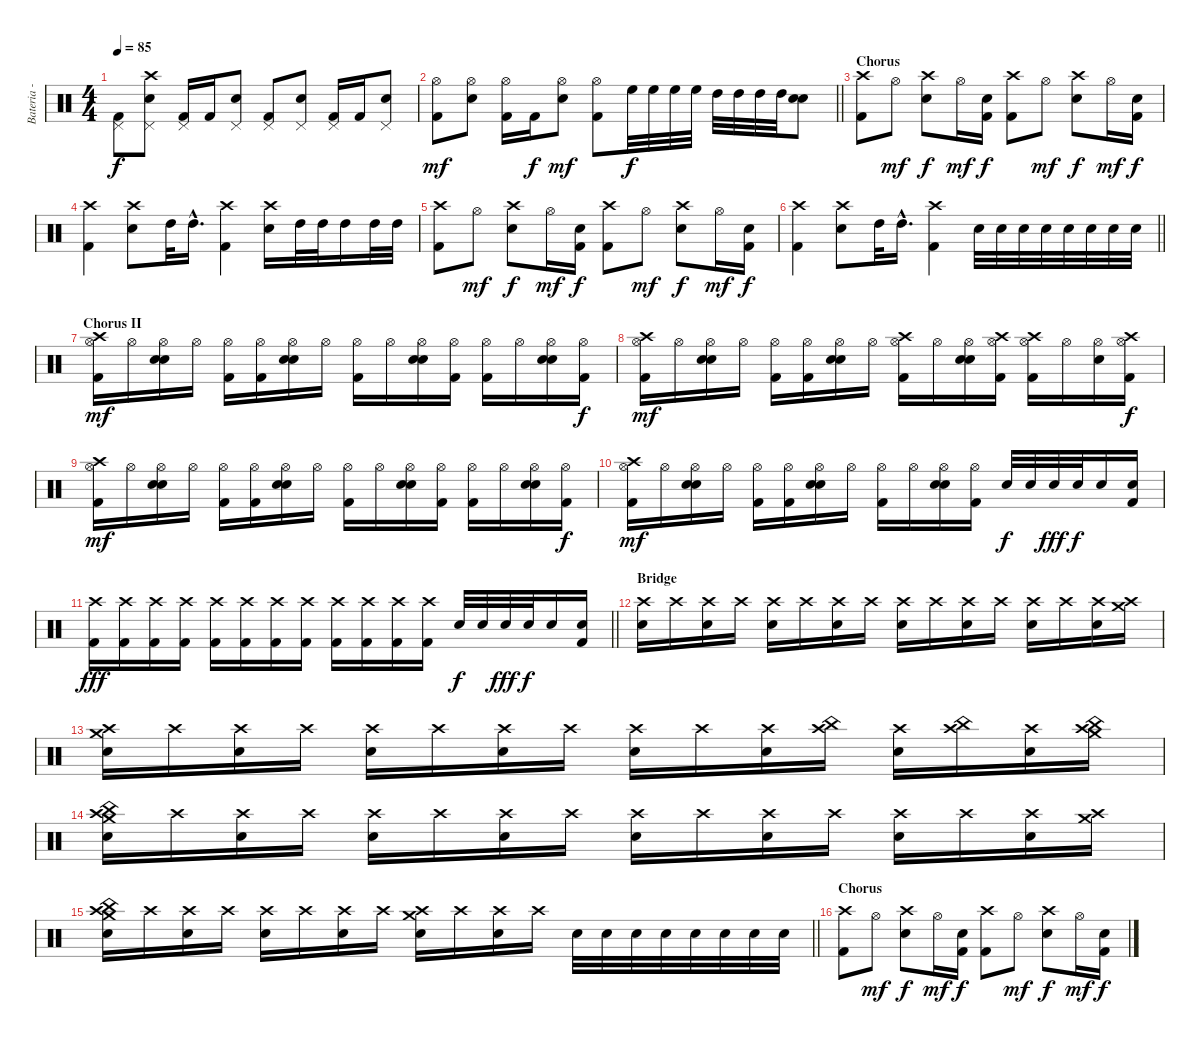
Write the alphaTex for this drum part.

\track ("Bateria - Larzon" "Bateria - ") {instrument percussion}
\staff {score}
\articulation defaults
\ts (4 4)
\tempo 85
\clef neutral
\ks c
("Kick (hit) 2" "Pedal Hi-Hat (hit)").8{dy f} ("Snare (hit) 2" "Pedal Hi-Hat (hit)" "Crash high (hit)").8 ("Kick (hit) 2" "Pedal Hi-Hat (hit)").16 "Kick (hit) 2".16 ("Snare (hit) 2" "Pedal Hi-Hat (hit)").8 ("Kick (hit) 2" "Pedal Hi-Hat (hit)").8 ("Snare (hit) 2" "Pedal Hi-Hat (hit)").8 ("Kick (hit) 2" "Pedal Hi-Hat (hit)").16 "Kick (hit) 2".16 ("Snare (hit) 2" "Pedal Hi-Hat (hit)").8 |
\barLineRight lightlight
("Kick (hit) 2" "Hi-Hat (open)").8{dy mf} ("Snare (hit) 2" "Hi-Hat (open)").8 ("Kick (hit) 2" "Hi-Hat (open)").16 "Kick (hit) 2".16{dy f} ("Snare (hit) 2" "Hi-Hat (open)").8{dy mf} ("Kick (hit) 2" "Hi-Hat (open)").8 "High Floor Tom (hit)".32{dy f} "High Floor Tom (hit)".32 "High Floor Tom (hit)".32 "High Floor Tom (hit)".32 "High Tom (hit)".32 "High Tom (hit)".32 "High Tom (hit)".32 "High Tom (hit)".32 ("Snare (hit) 2" "Snare (hit) 2").8 |
\section ("" "Chorus")
("Crash high (hit)" "Kick (hit) 2").8 "Hi-Hat (open)".8{dy mf} ("Crash high (hit)" "Snare (hit) 2").8{dy f} "Hi-Hat (open)".16{dy mf} ("Snare (hit) 2" "Kick (hit) 2").16{dy f} ("Crash high (hit)" "Kick (hit) 2").8 "Hi-Hat (open)".8{dy mf} ("Crash high (hit)" "Snare (hit) 2").8{dy f} "Hi-Hat (open)".16{dy mf} ("Snare (hit) 2" "Kick (hit) 2").16{dy f} |
("Crash high (hit)" "Kick (hit) 2").4 ("Crash high (hit)" "Snare (hit) 2").8 "High Tom (hit)".32 "High Tom (hit)"{hac}.16{d} ("Crash high (hit)" "Kick (hit) 2").4 ("Crash high (hit)" "Snare (hit) 2").16 "High Tom (hit)".32 "High Tom (hit)".32 "High Tom (hit)".16 "High Tom (hit)".32 "High Tom (hit)".32 |
("Crash high (hit)" "Kick (hit) 2").8 "Hi-Hat (open)".8{dy mf} ("Crash high (hit)" "Snare (hit) 2").8{dy f} "Hi-Hat (open)".16{dy mf} ("Snare (hit) 2" "Kick (hit) 2").16{dy f} ("Crash high (hit)" "Kick (hit) 2").8 "Hi-Hat (open)".8{dy mf} ("Crash high (hit)" "Snare (hit) 2").8{dy f} "Hi-Hat (open)".16{dy mf} ("Snare (hit) 2" "Kick (hit) 2").16{dy f} |
\barLineRight lightlight
("Crash high (hit)" "Kick (hit) 2").4 ("Crash high (hit)" "Snare (hit) 2").8 "High Tom (hit)".32 "High Tom (hit)"{hac}.16{d} ("Crash high (hit)" "Kick (hit) 2").4 "Snare (hit) 2".32 "Snare (hit) 2".32 "Snare (hit) 2".32 "Snare (hit) 2".32 "Snare (hit) 2".32 "Snare (hit) 2".32 "Snare (hit) 2".32 "Snare (hit) 2".32 |
\section ("" "Chorus II")
("Kick (hit) 2" "Crash high (hit)" "Hi-Hat (open)").16{dy mf} "Hi-Hat (open)".16 ("Snare (hit) 2" "Snare (hit) 2" "Hi-Hat (open)").16 "Hi-Hat (open)".16 ("Kick (hit) 2" "Hi-Hat (open)").16 ("Kick (hit) 2" "Hi-Hat (open)").16 ("Snare (hit) 2" "Snare (hit) 2" "Hi-Hat (open)").16 "Hi-Hat (open)".16 ("Kick (hit) 2" "Hi-Hat (open)").16 "Hi-Hat (open)".16 ("Snare (hit) 2" "Snare (hit) 2" "Hi-Hat (open)").16 ("Kick (hit) 2" "Hi-Hat (open)").16 ("Kick (hit) 2" "Hi-Hat (open)").16 "Hi-Hat (open)".16 ("Snare (hit) 2" "Snare (hit) 2" "Hi-Hat (open)").16 ("Kick (hit) 2" "Hi-Hat (open)").16{dy f} |
("Kick (hit) 2" "Crash high (hit)" "Hi-Hat (open)").16{dy mf} "Hi-Hat (open)".16 ("Snare (hit) 2" "Snare (hit) 2" "Hi-Hat (open)").16 "Hi-Hat (open)".16 ("Kick (hit) 2" "Hi-Hat (open)").16 ("Kick (hit) 2" "Hi-Hat (open)").16 ("Snare (hit) 2" "Snare (hit) 2" "Hi-Hat (open)").16 "Hi-Hat (open)".16 ("Kick (hit) 2" "Crash high (hit)" "Hi-Hat (open)").16 "Hi-Hat (open)".16 ("Snare (hit) 2" "Snare (hit) 2" "Hi-Hat (open)").16 ("Kick (hit) 2" "Crash high (hit)" "Hi-Hat (open)").16 ("Kick (hit) 2" "Crash high (hit)" "Hi-Hat (open)").16 "Hi-Hat (open)".16 ("Snare (hit) 2" "Hi-Hat (open)").16 ("Kick (hit) 2" "Crash high (hit)" "Hi-Hat (open)").16{dy f} |
("Kick (hit) 2" "Crash high (hit)" "Hi-Hat (open)").16{dy mf} "Hi-Hat (open)".16 ("Snare (hit) 2" "Snare (hit) 2" "Hi-Hat (open)").16 "Hi-Hat (open)".16 ("Kick (hit) 2" "Hi-Hat (open)").16 ("Kick (hit) 2" "Hi-Hat (open)").16 ("Snare (hit) 2" "Snare (hit) 2" "Hi-Hat (open)").16 "Hi-Hat (open)".16 ("Kick (hit) 2" "Hi-Hat (open)").16 "Hi-Hat (open)".16 ("Snare (hit) 2" "Snare (hit) 2" "Hi-Hat (open)").16 ("Kick (hit) 2" "Hi-Hat (open)").16 ("Kick (hit) 2" "Hi-Hat (open)").16 "Hi-Hat (open)".16 ("Snare (hit) 2" "Snare (hit) 2" "Hi-Hat (open)").16 ("Kick (hit) 2" "Hi-Hat (open)").16{dy f} |
("Kick (hit) 2" "Crash high (hit)" "Hi-Hat (open)").16{dy mf} "Hi-Hat (open)".16 ("Snare (hit) 2" "Snare (hit) 2" "Hi-Hat (open)").16 "Hi-Hat (open)".16 ("Kick (hit) 2" "Hi-Hat (open)").16 ("Kick (hit) 2" "Hi-Hat (open)").16 ("Snare (hit) 2" "Snare (hit) 2" "Hi-Hat (open)").16 "Hi-Hat (open)".16 ("Kick (hit) 2" "Hi-Hat (open)").16 "Hi-Hat (open)".16 ("Snare (hit) 2" "Snare (hit) 2" "Hi-Hat (open)").16 ("Kick (hit) 2" "Hi-Hat (open)").16 "Snare (hit) 2".32{dy f} "Snare (hit) 2".32 "Snare (hit) 2".32{dy fff} "Snare (hit) 2".32{dy f} "Snare (hit) 2".16 ("Snare (hit) 2" "Kick (hit) 2").16 |
\barLineRight lightlight
("Kick (hit) 2" "Crash high (hit)").16{dy fff} ("Kick (hit) 2" "Crash high (hit)").16 ("Kick (hit) 2" "Crash high (hit)").16 ("Kick (hit) 2" "Crash high (hit)").16 ("Kick (hit) 2" "Crash high (hit)").16 ("Kick (hit) 2" "Crash high (hit)").16 ("Kick (hit) 2" "Crash high (hit)").16 ("Kick (hit) 2" "Crash high (hit)").16 ("Kick (hit) 2" "Crash high (hit)").16 ("Kick (hit) 2" "Crash high (hit)").16 ("Kick (hit) 2" "Crash high (hit)").16 ("Kick (hit) 2" "Crash high (hit)").16 "Snare (hit) 2".32{dy f} "Snare (hit) 2".32 "Snare (hit) 2".32{dy fff} "Snare (hit) 2".32{dy f} "Snare (hit) 2".16 ("Snare (hit) 2" "Kick (hit) 2").16 |
\section ("" "Bridge")
("Snare (hit) 2" "Crash high (hit)").16 "Crash high (hit)".16 ("Snare (hit) 2" "Crash high (hit)").16 "Crash high (hit)".16 ("Snare (hit) 2" "Crash high (hit)").16 "Crash high (hit)".16 ("Snare (hit) 2" "Crash high (hit)").16 "Crash high (hit)".16 ("Snare (hit) 2" "Crash high (hit)").16 "Crash high (hit)".16 ("Snare (hit) 2" "Crash high (hit)").16 "Crash high (hit)".16 ("Snare (hit) 2" "Crash high (hit)").16 "Crash high (hit)".16 ("Snare (hit) 2" "Crash high (hit)").16 ("Crash medium (hit)" "Crash high (hit)").16 |
("Snare (hit) 2" "Crash medium (hit)" "Crash high (hit)").16 "Crash high (hit)".16 ("Snare (hit) 2" "Crash high (hit)").16 "Crash high (hit)".16 ("Snare (hit) 2" "Crash high (hit)").16 "Crash high (hit)".16 ("Snare (hit) 2" "Crash high (hit)").16 "Crash high (hit)".16 ("Snare (hit) 2" "Crash high (hit)").16 "Crash high (hit)".16 ("Snare (hit) 2" "Crash high (hit)").16 ("China (hit)" "Crash high (hit)").16 ("Snare (hit) 2" "Crash high (hit)").16 ("China (hit)" "Crash high (hit)").16 ("Snare (hit) 2" "Crash high (hit)").16 ("China (hit)" "Crash medium (hit)" "Crash high (hit)").16 |
("Snare (hit) 2" "China (hit)" "Crash medium (hit)" "Crash high (hit)").16 "Crash high (hit)".16 ("Snare (hit) 2" "Crash high (hit)").16 "Crash high (hit)".16 ("Snare (hit) 2" "Crash high (hit)").16 "Crash high (hit)".16 ("Snare (hit) 2" "Crash high (hit)").16 "Crash high (hit)".16 ("Snare (hit) 2" "Crash high (hit)").16 "Crash high (hit)".16 ("Snare (hit) 2" "Crash high (hit)").16 "Crash high (hit)".16 ("Snare (hit) 2" "Crash high (hit)").16 "Crash high (hit)".16 ("Snare (hit) 2" "Crash high (hit)").16 ("Crash medium (hit)" "Crash high (hit)").16 |
\barLineRight lightlight
("Snare (hit) 2" "China (hit)" "Crash medium (hit)" "Crash high (hit)").16 "Crash high (hit)".16 ("Snare (hit) 2" "Crash high (hit)").16 "Crash high (hit)".16 ("Snare (hit) 2" "Crash high (hit)").16 "Crash high (hit)".16 ("Snare (hit) 2" "Crash high (hit)").16 "Crash high (hit)".16 ("Snare (hit) 2" "Crash medium (hit)" "Crash high (hit)").16 "Crash high (hit)".16 ("Snare (hit) 2" "Crash high (hit)").16 "Crash high (hit)".16 "Snare (hit) 2".32 "Snare (hit) 2".32 "Snare (hit) 2".32 "Snare (hit) 2".32 "Snare (hit) 2".32 "Snare (hit) 2".32 "Snare (hit) 2".32 "Snare (hit) 2".32 |
\section ("" "Chorus")
("Crash high (hit)" "Kick (hit) 2").8 "Hi-Hat (open)".8{dy mf} ("Crash high (hit)" "Snare (hit) 2").8{dy f} "Hi-Hat (open)".16{dy mf} ("Snare (hit) 2" "Kick (hit) 2").16{dy f} ("Crash high (hit)" "Kick (hit) 2").8 "Hi-Hat (open)".8{dy mf} ("Crash high (hit)" "Snare (hit) 2").8{dy f} "Hi-Hat (open)".16{dy mf} ("Snare (hit) 2" "Kick (hit) 2").16{dy f}
